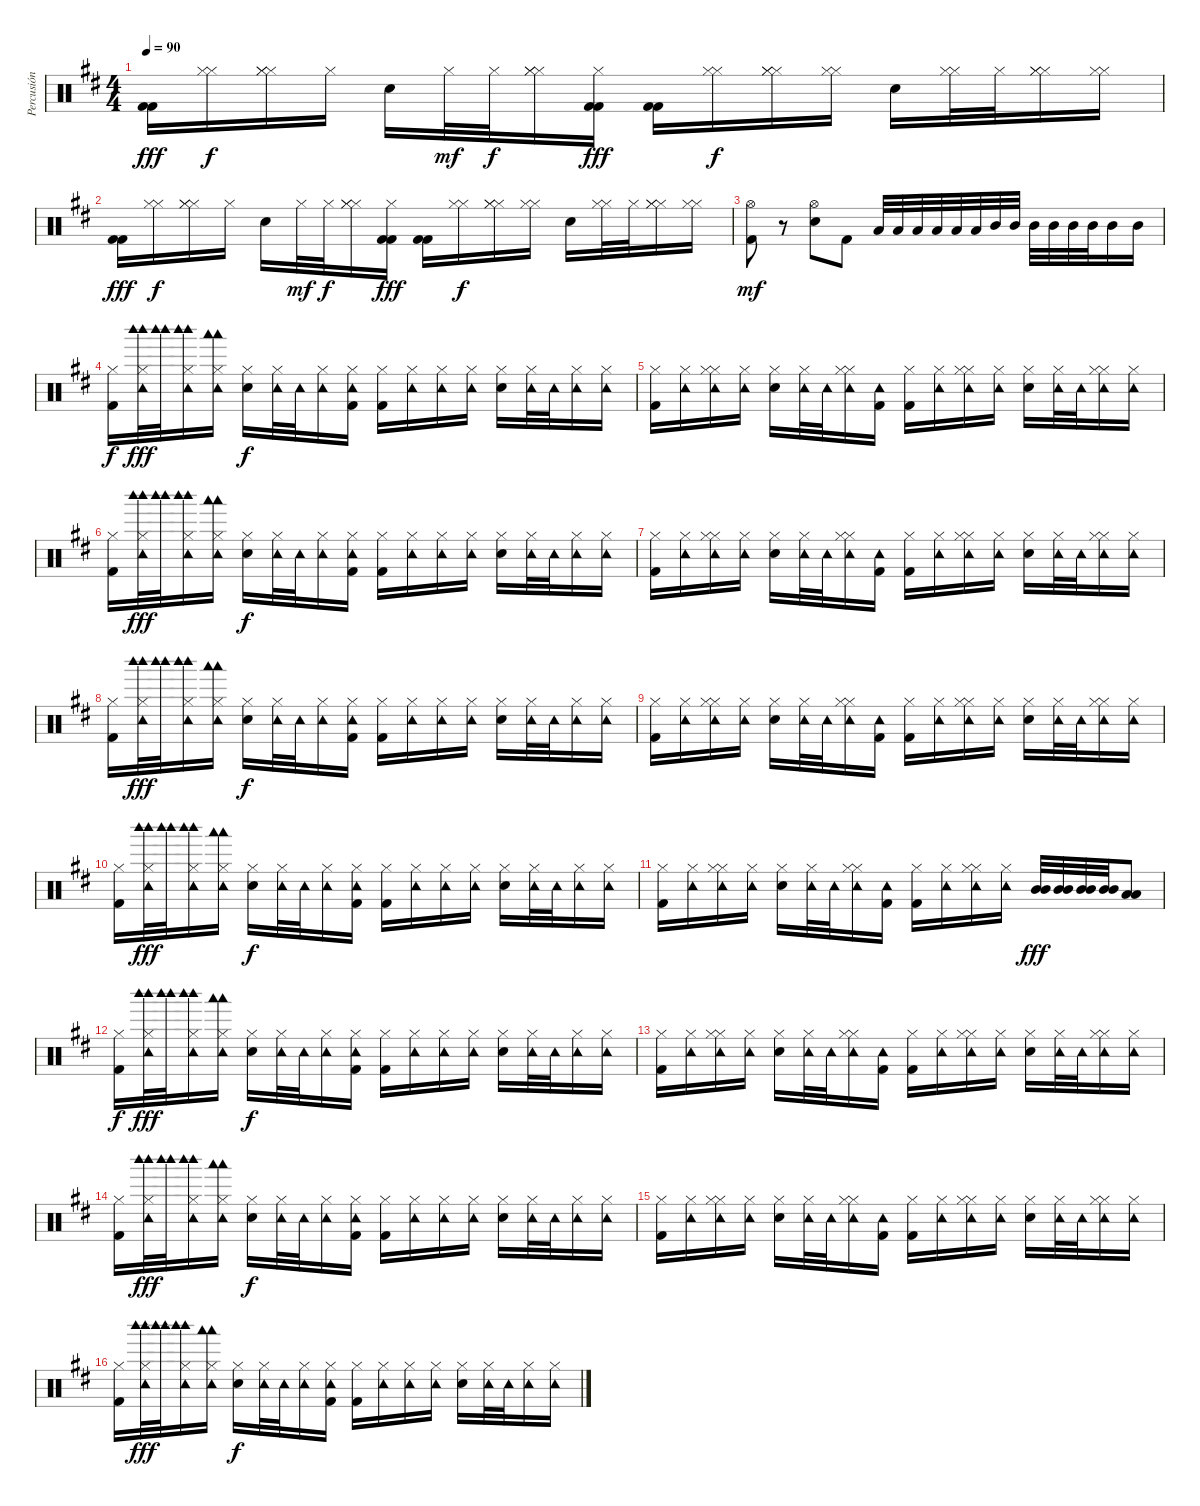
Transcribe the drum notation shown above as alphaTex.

\track ("Percusión" "Percusión") {instrument percussion}
\staff
\articulation defaults
\ts (4 4)
\tempo 90
\clef neutral
\ks bminor
("Kick (hit) 2" "Kick (hit) 2").16{dy fff} ("Hi-Hat (closed)" "Hi-Hat (closed)").16{dy f} ("Hi-Hat (closed)" "Hi-Hat (closed)" "Hi-Hat (closed)").16 "Hi-Hat (closed)".16 "Electric Snare (hit)".16 "Hi-Hat (closed)".32{dy mf} "Hi-Hat (closed)".32{dy f} ("Hi-Hat (closed)" "Hi-Hat (closed)" "Hi-Hat (closed)").16 ("Kick (hit) 2" "Kick (hit) 2" "Hi-Hat (closed)").16{dy fff} ("Kick (hit) 2" "Kick (hit) 2").16 ("Hi-Hat (closed)" "Hi-Hat (closed)").16{dy f} ("Hi-Hat (closed)" "Hi-Hat (closed)" "Hi-Hat (closed)").16 ("Hi-Hat (closed)" "Hi-Hat (closed)").16 "Electric Snare (hit)".16 ("Hi-Hat (closed)" "Hi-Hat (closed)").32 "Hi-Hat (closed)".32 ("Hi-Hat (closed)" "Hi-Hat (closed)" "Hi-Hat (closed)").16 ("Hi-Hat (closed)" "Hi-Hat (closed)").16 |
("Kick (hit) 2" "Kick (hit) 2").16{dy fff} ("Hi-Hat (closed)" "Hi-Hat (closed)").16{dy f} ("Hi-Hat (closed)" "Hi-Hat (closed)" "Hi-Hat (closed)").16 "Hi-Hat (closed)".16 "Electric Snare (hit)".16 "Hi-Hat (closed)".32{dy mf} "Hi-Hat (closed)".32{dy f} ("Hi-Hat (closed)" "Hi-Hat (closed)" "Hi-Hat (closed)").16 ("Kick (hit) 2" "Kick (hit) 2" "Hi-Hat (closed)").16{dy fff} ("Kick (hit) 2" "Kick (hit) 2").16 ("Hi-Hat (closed)" "Hi-Hat (closed)").16{dy f} ("Hi-Hat (closed)" "Hi-Hat (closed)" "Hi-Hat (closed)").16 ("Hi-Hat (closed)" "Hi-Hat (closed)").16 "Electric Snare (hit)".16 ("Hi-Hat (closed)" "Hi-Hat (closed)").32 "Hi-Hat (closed)".32 ("Hi-Hat (closed)" "Hi-Hat (closed)" "Hi-Hat (closed)").16 ("Hi-Hat (closed)" "Hi-Hat (closed)").16 |
("Hi-Hat (open)" "Kick (hit) 2").8{dy mf} r.8 ("Hi-Hat (open)" "Electric Snare (hit)").8 "Kick (hit) 2".8 "Low Tom (hit)".32 "Low Tom (hit)".32 "Low Tom (hit)".32 "Low Tom (hit)".32 "Low Tom (hit)".32 "Low Tom (hit)".32 "Mid Tom (hit)".32 "Mid Tom (hit)".32 "Mid Tom (hit)".32 "Mid Tom (hit)".32 "Mid Tom (hit)".32 "Mid Tom (hit)".32 "Mid Tom (hit)".16 "Mid Tom (hit)".16 |
("Kick (hit) 2" "Hi-Hat (closed)").16{dy f} ("Hi-Hat (closed)" "Tambourine (hit)" "Woodblock high (hit)" "Woodblock high (hit)").32{dy fff} ("Woodblock high (hit)" "Woodblock high (hit)").32 ("Hi-Hat (closed)" "Tambourine (hit)" "Woodblock high (hit)" "Woodblock high (hit)").16 ("Hi-Hat (closed)" "Tambourine (hit)" "Woodblock low (hit)" "Woodblock low (hit)").16 ("Electric Snare (hit)" "Hi-Hat (closed)").16{dy f} ("Hi-Hat (closed)" "Tambourine (hit)").32 "Tambourine (hit)".32 ("Hi-Hat (closed)" "Tambourine (hit)").16 ("Kick (hit) 2" "Hi-Hat (closed)" "Tambourine (hit)").16 ("Kick (hit) 2" "Hi-Hat (closed)").16 ("Hi-Hat (closed)" "Tambourine (hit)").16 ("Hi-Hat (closed)" "Tambourine (hit)").16 ("Hi-Hat (closed)" "Tambourine (hit)").16 ("Electric Snare (hit)" "Hi-Hat (closed)").16 ("Hi-Hat (closed)" "Tambourine (hit)").32 "Tambourine (hit)".32 ("Hi-Hat (closed)" "Tambourine (hit)").16 ("Hi-Hat (closed)" "Tambourine (hit)").16 |
("Kick (hit) 2" "Hi-Hat (closed)").16 ("Tambourine (hit)" "Hi-Hat (closed)").16 ("Hi-Hat (closed)" "Tambourine (hit)" "Hi-Hat (closed)").16 ("Tambourine (hit)" "Hi-Hat (closed)").16 ("Electric Snare (hit)" "Hi-Hat (closed)").16 ("Tambourine (hit)" "Hi-Hat (closed)").32 "Tambourine (hit)".32 ("Hi-Hat (closed)" "Tambourine (hit)" "Hi-Hat (closed)").16 ("Kick (hit) 2" "Tambourine (hit)").16 ("Kick (hit) 2" "Hi-Hat (closed)").16 ("Tambourine (hit)" "Hi-Hat (closed)").16 ("Hi-Hat (closed)" "Tambourine (hit)" "Hi-Hat (closed)").16 ("Tambourine (hit)" "Hi-Hat (closed)").16 ("Electric Snare (hit)" "Hi-Hat (closed)").16 ("Tambourine (hit)" "Hi-Hat (closed)").32 "Tambourine (hit)".32 ("Hi-Hat (closed)" "Tambourine (hit)" "Hi-Hat (closed)").16 ("Tambourine (hit)" "Hi-Hat (closed)").16 |
("Kick (hit) 2" "Hi-Hat (closed)").16 ("Hi-Hat (closed)" "Tambourine (hit)" "Woodblock high (hit)" "Woodblock high (hit)").32{dy fff} ("Woodblock high (hit)" "Woodblock high (hit)").32 ("Hi-Hat (closed)" "Tambourine (hit)" "Woodblock high (hit)" "Woodblock high (hit)").16 ("Hi-Hat (closed)" "Tambourine (hit)" "Woodblock low (hit)" "Woodblock low (hit)").16 ("Electric Snare (hit)" "Hi-Hat (closed)").16{dy f} ("Hi-Hat (closed)" "Tambourine (hit)").32 "Tambourine (hit)".32 ("Hi-Hat (closed)" "Tambourine (hit)").16 ("Kick (hit) 2" "Hi-Hat (closed)" "Tambourine (hit)").16 ("Kick (hit) 2" "Hi-Hat (closed)").16 ("Hi-Hat (closed)" "Tambourine (hit)").16 ("Hi-Hat (closed)" "Tambourine (hit)").16 ("Hi-Hat (closed)" "Tambourine (hit)").16 ("Electric Snare (hit)" "Hi-Hat (closed)").16 ("Hi-Hat (closed)" "Tambourine (hit)").32 "Tambourine (hit)".32 ("Hi-Hat (closed)" "Tambourine (hit)").16 ("Hi-Hat (closed)" "Tambourine (hit)").16 |
("Kick (hit) 2" "Hi-Hat (closed)").16 ("Tambourine (hit)" "Hi-Hat (closed)").16 ("Hi-Hat (closed)" "Tambourine (hit)" "Hi-Hat (closed)").16 ("Tambourine (hit)" "Hi-Hat (closed)").16 ("Electric Snare (hit)" "Hi-Hat (closed)").16 ("Tambourine (hit)" "Hi-Hat (closed)").32 "Tambourine (hit)".32 ("Hi-Hat (closed)" "Tambourine (hit)" "Hi-Hat (closed)").16 ("Kick (hit) 2" "Tambourine (hit)").16 ("Kick (hit) 2" "Hi-Hat (closed)").16 ("Tambourine (hit)" "Hi-Hat (closed)").16 ("Hi-Hat (closed)" "Tambourine (hit)" "Hi-Hat (closed)").16 ("Tambourine (hit)" "Hi-Hat (closed)").16 ("Electric Snare (hit)" "Hi-Hat (closed)").16 ("Tambourine (hit)" "Hi-Hat (closed)").32 "Tambourine (hit)".32 ("Hi-Hat (closed)" "Tambourine (hit)" "Hi-Hat (closed)").16 ("Tambourine (hit)" "Hi-Hat (closed)").16 |
("Kick (hit) 2" "Hi-Hat (closed)").16 ("Hi-Hat (closed)" "Tambourine (hit)" "Woodblock high (hit)" "Woodblock high (hit)").32{dy fff} ("Woodblock high (hit)" "Woodblock high (hit)").32 ("Hi-Hat (closed)" "Tambourine (hit)" "Woodblock high (hit)" "Woodblock high (hit)").16 ("Hi-Hat (closed)" "Tambourine (hit)" "Woodblock low (hit)" "Woodblock low (hit)").16 ("Electric Snare (hit)" "Hi-Hat (closed)").16{dy f} ("Hi-Hat (closed)" "Tambourine (hit)").32 "Tambourine (hit)".32 ("Hi-Hat (closed)" "Tambourine (hit)").16 ("Kick (hit) 2" "Hi-Hat (closed)" "Tambourine (hit)").16 ("Kick (hit) 2" "Hi-Hat (closed)").16 ("Hi-Hat (closed)" "Tambourine (hit)").16 ("Hi-Hat (closed)" "Tambourine (hit)").16 ("Hi-Hat (closed)" "Tambourine (hit)").16 ("Electric Snare (hit)" "Hi-Hat (closed)").16 ("Hi-Hat (closed)" "Tambourine (hit)").32 "Tambourine (hit)".32 ("Hi-Hat (closed)" "Tambourine (hit)").16 ("Hi-Hat (closed)" "Tambourine (hit)").16 |
("Kick (hit) 2" "Hi-Hat (closed)").16 ("Tambourine (hit)" "Hi-Hat (closed)").16 ("Hi-Hat (closed)" "Tambourine (hit)" "Hi-Hat (closed)").16 ("Tambourine (hit)" "Hi-Hat (closed)").16 ("Electric Snare (hit)" "Hi-Hat (closed)").16 ("Tambourine (hit)" "Hi-Hat (closed)").32 "Tambourine (hit)".32 ("Hi-Hat (closed)" "Tambourine (hit)" "Hi-Hat (closed)").16 ("Kick (hit) 2" "Tambourine (hit)").16 ("Kick (hit) 2" "Hi-Hat (closed)").16 ("Tambourine (hit)" "Hi-Hat (closed)").16 ("Hi-Hat (closed)" "Tambourine (hit)" "Hi-Hat (closed)").16 ("Tambourine (hit)" "Hi-Hat (closed)").16 ("Electric Snare (hit)" "Hi-Hat (closed)").16 ("Tambourine (hit)" "Hi-Hat (closed)").32 "Tambourine (hit)".32 ("Hi-Hat (closed)" "Tambourine (hit)" "Hi-Hat (closed)").16 ("Tambourine (hit)" "Hi-Hat (closed)").16 |
("Kick (hit) 2" "Hi-Hat (closed)").16 ("Hi-Hat (closed)" "Tambourine (hit)" "Woodblock high (hit)" "Woodblock high (hit)").32{dy fff} ("Woodblock high (hit)" "Woodblock high (hit)").32 ("Hi-Hat (closed)" "Tambourine (hit)" "Woodblock high (hit)" "Woodblock high (hit)").16 ("Hi-Hat (closed)" "Tambourine (hit)" "Woodblock low (hit)" "Woodblock low (hit)").16 ("Electric Snare (hit)" "Hi-Hat (closed)").16{dy f} ("Hi-Hat (closed)" "Tambourine (hit)").32 "Tambourine (hit)".32 ("Hi-Hat (closed)" "Tambourine (hit)").16 ("Kick (hit) 2" "Hi-Hat (closed)" "Tambourine (hit)").16 ("Kick (hit) 2" "Hi-Hat (closed)").16 ("Hi-Hat (closed)" "Tambourine (hit)").16 ("Hi-Hat (closed)" "Tambourine (hit)").16 ("Hi-Hat (closed)" "Tambourine (hit)").16 ("Electric Snare (hit)" "Hi-Hat (closed)").16 ("Hi-Hat (closed)" "Tambourine (hit)").32 "Tambourine (hit)".32 ("Hi-Hat (closed)" "Tambourine (hit)").16 ("Hi-Hat (closed)" "Tambourine (hit)").16 |
("Kick (hit) 2" "Hi-Hat (closed)").16 ("Tambourine (hit)" "Hi-Hat (closed)").16 ("Hi-Hat (closed)" "Tambourine (hit)" "Hi-Hat (closed)").16 ("Tambourine (hit)" "Hi-Hat (closed)").16 ("Electric Snare (hit)" "Hi-Hat (closed)").16 ("Tambourine (hit)" "Hi-Hat (closed)").32 "Tambourine (hit)".32 ("Hi-Hat (closed)" "Tambourine (hit)" "Hi-Hat (closed)").16 ("Kick (hit) 2" "Tambourine (hit)").16 ("Kick (hit) 2" "Hi-Hat (closed)").16 ("Tambourine (hit)" "Hi-Hat (closed)").16 ("Hi-Hat (closed)" "Tambourine (hit)" "Hi-Hat (closed)").16 ("Tambourine (hit)" "Hi-Hat (closed)").16 ("Mid Tom (hit)" "Mid Tom (hit)").32{dy fff} ("Mid Tom (hit)" "Mid Tom (hit)").32 ("Mid Tom (hit)" "Mid Tom (hit)").32 ("Mid Tom (hit)" "Mid Tom (hit)").32 ("Low Tom (hit)" "Low Tom (hit)").8 |
("Kick (hit) 2" "Hi-Hat (closed)").16{dy f} ("Hi-Hat (closed)" "Tambourine (hit)" "Woodblock high (hit)" "Woodblock high (hit)").32{dy fff} ("Woodblock high (hit)" "Woodblock high (hit)").32 ("Hi-Hat (closed)" "Tambourine (hit)" "Woodblock high (hit)" "Woodblock high (hit)").16 ("Hi-Hat (closed)" "Tambourine (hit)" "Woodblock low (hit)" "Woodblock low (hit)").16 ("Electric Snare (hit)" "Hi-Hat (closed)").16{dy f} ("Hi-Hat (closed)" "Tambourine (hit)").32 "Tambourine (hit)".32 ("Hi-Hat (closed)" "Tambourine (hit)").16 ("Kick (hit) 2" "Hi-Hat (closed)" "Tambourine (hit)").16 ("Kick (hit) 2" "Hi-Hat (closed)").16 ("Hi-Hat (closed)" "Tambourine (hit)").16 ("Hi-Hat (closed)" "Tambourine (hit)").16 ("Hi-Hat (closed)" "Tambourine (hit)").16 ("Electric Snare (hit)" "Hi-Hat (closed)").16 ("Hi-Hat (closed)" "Tambourine (hit)").32 "Tambourine (hit)".32 ("Hi-Hat (closed)" "Tambourine (hit)").16 ("Hi-Hat (closed)" "Tambourine (hit)").16 |
("Kick (hit) 2" "Hi-Hat (closed)").16 ("Tambourine (hit)" "Hi-Hat (closed)").16 ("Hi-Hat (closed)" "Tambourine (hit)" "Hi-Hat (closed)").16 ("Tambourine (hit)" "Hi-Hat (closed)").16 ("Electric Snare (hit)" "Hi-Hat (closed)").16 ("Tambourine (hit)" "Hi-Hat (closed)").32 "Tambourine (hit)".32 ("Hi-Hat (closed)" "Tambourine (hit)" "Hi-Hat (closed)").16 ("Kick (hit) 2" "Tambourine (hit)").16 ("Kick (hit) 2" "Hi-Hat (closed)").16 ("Tambourine (hit)" "Hi-Hat (closed)").16 ("Hi-Hat (closed)" "Tambourine (hit)" "Hi-Hat (closed)").16 ("Tambourine (hit)" "Hi-Hat (closed)").16 ("Electric Snare (hit)" "Hi-Hat (closed)").16 ("Tambourine (hit)" "Hi-Hat (closed)").32 "Tambourine (hit)".32 ("Hi-Hat (closed)" "Tambourine (hit)" "Hi-Hat (closed)").16 ("Tambourine (hit)" "Hi-Hat (closed)").16 |
("Kick (hit) 2" "Hi-Hat (closed)").16 ("Hi-Hat (closed)" "Tambourine (hit)" "Woodblock high (hit)" "Woodblock high (hit)").32{dy fff} ("Woodblock high (hit)" "Woodblock high (hit)").32 ("Hi-Hat (closed)" "Tambourine (hit)" "Woodblock high (hit)" "Woodblock high (hit)").16 ("Hi-Hat (closed)" "Tambourine (hit)" "Woodblock low (hit)" "Woodblock low (hit)").16 ("Electric Snare (hit)" "Hi-Hat (closed)").16{dy f} ("Hi-Hat (closed)" "Tambourine (hit)").32 "Tambourine (hit)".32 ("Hi-Hat (closed)" "Tambourine (hit)").16 ("Kick (hit) 2" "Hi-Hat (closed)" "Tambourine (hit)").16 ("Kick (hit) 2" "Hi-Hat (closed)").16 ("Hi-Hat (closed)" "Tambourine (hit)").16 ("Hi-Hat (closed)" "Tambourine (hit)").16 ("Hi-Hat (closed)" "Tambourine (hit)").16 ("Electric Snare (hit)" "Hi-Hat (closed)").16 ("Hi-Hat (closed)" "Tambourine (hit)").32 "Tambourine (hit)".32 ("Hi-Hat (closed)" "Tambourine (hit)").16 ("Hi-Hat (closed)" "Tambourine (hit)").16 |
("Kick (hit) 2" "Hi-Hat (closed)").16 ("Tambourine (hit)" "Hi-Hat (closed)").16 ("Hi-Hat (closed)" "Tambourine (hit)" "Hi-Hat (closed)").16 ("Tambourine (hit)" "Hi-Hat (closed)").16 ("Electric Snare (hit)" "Hi-Hat (closed)").16 ("Tambourine (hit)" "Hi-Hat (closed)").32 "Tambourine (hit)".32 ("Hi-Hat (closed)" "Tambourine (hit)" "Hi-Hat (closed)").16 ("Kick (hit) 2" "Tambourine (hit)").16 ("Kick (hit) 2" "Hi-Hat (closed)").16 ("Tambourine (hit)" "Hi-Hat (closed)").16 ("Hi-Hat (closed)" "Tambourine (hit)" "Hi-Hat (closed)").16 ("Tambourine (hit)" "Hi-Hat (closed)").16 ("Electric Snare (hit)" "Hi-Hat (closed)").16 ("Tambourine (hit)" "Hi-Hat (closed)").32 "Tambourine (hit)".32 ("Hi-Hat (closed)" "Tambourine (hit)" "Hi-Hat (closed)").16 ("Tambourine (hit)" "Hi-Hat (closed)").16 |
("Kick (hit) 2" "Hi-Hat (closed)").16 ("Hi-Hat (closed)" "Tambourine (hit)" "Woodblock high (hit)" "Woodblock high (hit)").32{dy fff} ("Woodblock high (hit)" "Woodblock high (hit)").32 ("Hi-Hat (closed)" "Tambourine (hit)" "Woodblock high (hit)" "Woodblock high (hit)").16 ("Hi-Hat (closed)" "Tambourine (hit)" "Woodblock low (hit)" "Woodblock low (hit)").16 ("Electric Snare (hit)" "Hi-Hat (closed)").16{dy f} ("Hi-Hat (closed)" "Tambourine (hit)").32 "Tambourine (hit)".32 ("Hi-Hat (closed)" "Tambourine (hit)").16 ("Kick (hit) 2" "Hi-Hat (closed)" "Tambourine (hit)").16 ("Kick (hit) 2" "Hi-Hat (closed)").16 ("Hi-Hat (closed)" "Tambourine (hit)").16 ("Hi-Hat (closed)" "Tambourine (hit)").16 ("Hi-Hat (closed)" "Tambourine (hit)").16 ("Electric Snare (hit)" "Hi-Hat (closed)").16 ("Hi-Hat (closed)" "Tambourine (hit)").32 "Tambourine (hit)".32 ("Hi-Hat (closed)" "Tambourine (hit)").16 ("Hi-Hat (closed)" "Tambourine (hit)").16
